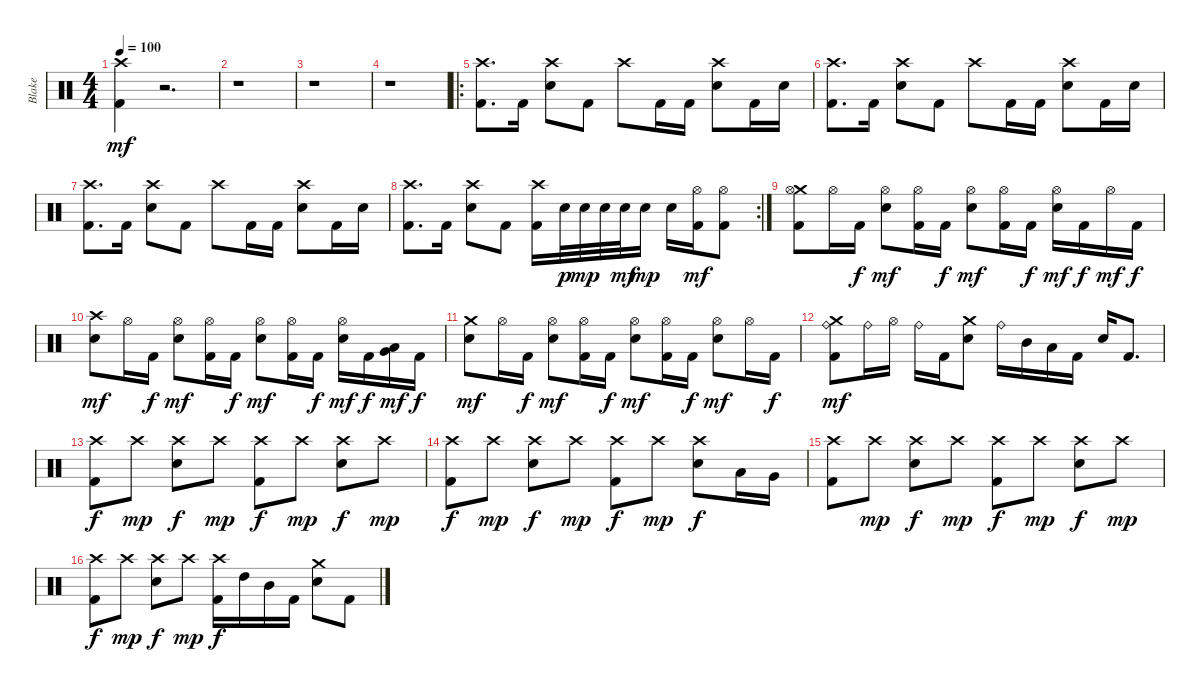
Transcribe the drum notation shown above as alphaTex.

\track ("Blake" "Blake") {instrument percussion}
\staff {score}
\articulation defaults
\ts (4 4)
\tempo 100
\clef neutral
\ks c
("Crash high (hit)" "Kick (hit) 2").4{dy mf} r.2{d} |
r.1 |
r.1 |
r.1 |
\ro
("Crash high (hit)" "Kick (hit) 2").8{d} "Kick (hit) 2".16 ("Crash high (hit)" "Snare (hit) 2").8 "Kick (hit) 2".8 "Crash high (hit)".8 "Kick (hit) 2".16 "Kick (hit) 2".16 ("Crash high (hit)" "Snare (hit) 2").8 "Kick (hit) 2".16 "Snare (hit) 2".16 |
("Crash high (hit)" "Kick (hit) 2").8{d} "Kick (hit) 2".16 ("Crash high (hit)" "Snare (hit) 2").8 "Kick (hit) 2".8 "Crash high (hit)".8 "Kick (hit) 2".16 "Kick (hit) 2".16 ("Crash high (hit)" "Snare (hit) 2").8 "Kick (hit) 2".16 "Snare (hit) 2".16 |
("Crash high (hit)" "Kick (hit) 2").8{d} "Kick (hit) 2".16 ("Crash high (hit)" "Snare (hit) 2").8 "Kick (hit) 2".8 "Crash high (hit)".8 "Kick (hit) 2".16 "Kick (hit) 2".16 ("Crash high (hit)" "Snare (hit) 2").8 "Kick (hit) 2".16 "Snare (hit) 2".16 |
\rc 2
("Crash high (hit)" "Kick (hit) 2").8{d} "Kick (hit) 2".16 ("Crash high (hit)" "Snare (hit) 2").8 "Kick (hit) 2".8 ("Crash high (hit)" "Kick (hit) 2").16 "Snare (hit) 2".32{dy p} "Snare (hit) 2".32{dy mp} "Snare (hit) 2".32 "Snare (hit) 2".32{dy mf} "Snare (hit) 2".16{dy mp} "Snare (hit) 2".16 ("Hi-Hat (open)" "Kick (hit) 2").16{dy mf} ("Hi-Hat (open)" "Kick (hit) 2").8 |
("Crash medium (hit)" "Hi-Hat (open)" "Kick (hit) 2").8 "Hi-Hat (open)".16 "Kick (hit) 2".16{dy f} ("Hi-Hat (open)" "Snare (hit) 2").8{dy mf} ("Hi-Hat (open)" "Kick (hit) 2").16 "Kick (hit) 2".16{dy f} ("Hi-Hat (open)" "Snare (hit) 2").8{dy mf} ("Hi-Hat (open)" "Kick (hit) 2").16 "Kick (hit) 2".16{dy f} ("Hi-Hat (open)" "Snare (hit) 2").16{dy mf} "Kick (hit) 2".16{dy f} "Hi-Hat (open)".16{dy mf} "Kick (hit) 2".16{dy f} |
("Crash high (hit)" "Snare (hit) 2").8{dy mf} "Hi-Hat (open)".16 "Kick (hit) 2".16{dy f} ("Hi-Hat (open)" "Snare (hit) 2").8{dy mf} ("Hi-Hat (open)" "Kick (hit) 2").16 "Kick (hit) 2".16{dy f} ("Hi-Hat (open)" "Snare (hit) 2").8{dy mf} ("Hi-Hat (open)" "Kick (hit) 2").16 "Kick (hit) 2".16{dy f} ("Hi-Hat (open)" "Snare (hit) 2").16{dy mf} "Kick (hit) 2".16{dy f} ("Low Floor Tom (hit)" "Very Low Tom (hit)").16{dy mf} "Kick (hit) 2".16{dy f} |
("Crash medium (hit)" "Snare (hit) 2").8{dy mf} "Hi-Hat (open)".16 "Kick (hit) 2".16{dy f} ("Hi-Hat (open)" "Snare (hit) 2").8{dy mf} ("Hi-Hat (open)" "Kick (hit) 2").16 "Kick (hit) 2".16{dy f} ("Hi-Hat (open)" "Snare (hit) 2").8{dy mf} ("Hi-Hat (open)" "Kick (hit) 2").16 "Kick (hit) 2".16{dy f} ("Hi-Hat (open)" "Snare (hit) 2").8{dy mf} "Hi-Hat (open)".16 "Kick (hit) 2".16{dy f} |
("Crash medium (hit)" "Ride (bell)" "Kick (hit) 2").8{dy mf} "Ride (bell)".16 "Hi-Hat (open)".16 "Ride (bell)".16 "Kick (hit) 2".16 ("Crash medium (hit)" "Snare (hit) 2").8 "Ride (bell)".16 "Mid Tom (hit)".16 "Low Tom (hit)".16 "Kick (hit) 2".16 "Snare (hit) 2".16 "Kick (hit) 2".8{d} |
("Crash high (hit)" "Kick (hit) 2").8{dy f} "Crash high (hit)".8{dy mp} ("Crash high (hit)" "Snare (hit) 2").8{dy f} "Crash high (hit)".8{dy mp} ("Crash high (hit)" "Kick (hit) 2").8{dy f} "Crash high (hit)".8{dy mp} ("Crash high (hit)" "Snare (hit) 2").8{dy f} "Crash high (hit)".8{dy mp} |
("Crash high (hit)" "Kick (hit) 2").8{dy f} "Crash high (hit)".8{dy mp} ("Crash high (hit)" "Snare (hit) 2").8{dy f} "Crash high (hit)".8{dy mp} ("Crash high (hit)" "Kick (hit) 2").8{dy f} "Crash high (hit)".8{dy mp} ("Crash high (hit)" "Snare (hit) 2").8{dy f} "Low Tom (hit)".16 "Very Low Tom (hit)".16 |
("Crash high (hit)" "Kick (hit) 2").8 "Crash high (hit)".8{dy mp} ("Crash high (hit)" "Snare (hit) 2").8{dy f} "Crash high (hit)".8{dy mp} ("Crash high (hit)" "Kick (hit) 2").8{dy f} "Crash high (hit)".8{dy mp} ("Crash high (hit)" "Snare (hit) 2").8{dy f} "Crash high (hit)".8{dy mp} |
("Crash high (hit)" "Kick (hit) 2").8{dy f} "Crash high (hit)".8{dy mp} ("Crash high (hit)" "Snare (hit) 2").8{dy f} "Crash high (hit)".8{dy mp} ("Crash high (hit)" "Kick (hit) 2").16{dy f} "High Tom (hit)".16 "Mid Tom (hit)".16 "Kick (hit) 2".16 ("Crash medium (hit)" "Snare (hit) 2").8 "Kick (hit) 2".8
